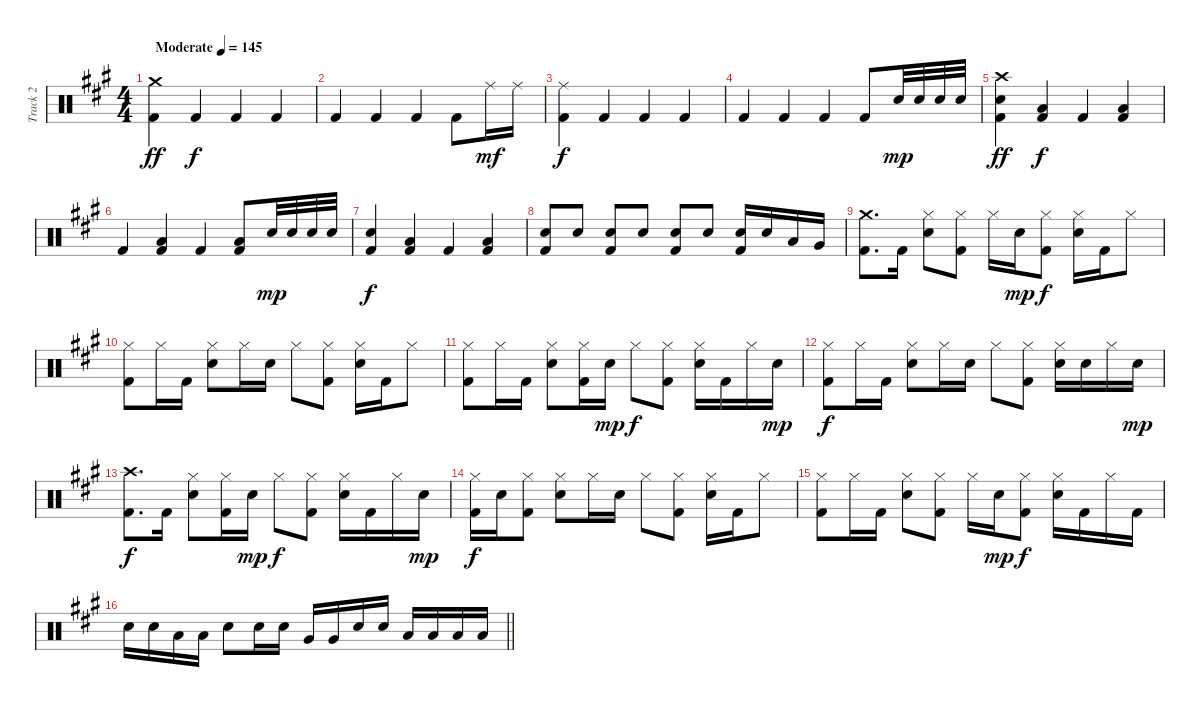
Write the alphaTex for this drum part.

\track ("Track 2" "Track 2") {instrument percussion}
\staff {score}
\articulation defaults
\ts (4 4)
\tempo (145 "Moderate")
\clef neutral
\ks a
("Crash medium (hit)" "Kick (hit) 2").4{dy ff} "Kick (hit) 2".4{dy f} "Kick (hit) 2".4 "Kick (hit) 2".4 |
"Kick (hit) 2".4 "Kick (hit) 2".4 "Kick (hit) 2".4 "Kick (hit) 2".8 "Ride (middle)".16{dy mf} "Ride (middle)".16 |
("Ride (middle)" "Kick (hit) 2").4{dy f} "Kick (hit) 2".4 "Kick (hit) 2".4 "Kick (hit) 2".4 |
"Kick (hit) 2".4 "Kick (hit) 2".4 "Kick (hit) 2".4 "Kick (hit) 2".8 "Snare (hit) 2".32{dy mp} "Snare (hit) 2".32 "Snare (hit) 2".32 "Snare (hit) 2".32 |
("Crash high (hit)" "Snare (hit) 2" "Kick (hit) 2").4{dy ff} ("Low Floor Tom (hit)" "Kick (hit) 2").4{dy f} "Kick (hit) 2".4 ("Low Floor Tom (hit)" "Kick (hit) 2").4 |
"Kick (hit) 2".4 ("Low Floor Tom (hit)" "Kick (hit) 2").4 "Kick (hit) 2".4 ("Low Floor Tom (hit)" "Kick (hit) 2").8 "Snare (hit) 2".32{dy mp} "Snare (hit) 2".32 "Snare (hit) 2".32 "Snare (hit) 2".32 |
("Snare (hit) 2" "Kick (hit) 2").4{dy f} ("Low Floor Tom (hit)" "Kick (hit) 2").4 "Kick (hit) 2".4 ("Low Floor Tom (hit)" "Kick (hit) 2").4 |
("Snare (hit) 2" "Kick (hit) 2").8 "Snare (hit) 2".8 ("Snare (hit) 2" "Kick (hit) 2").8 "Snare (hit) 2".8 ("Snare (hit) 2" "Kick (hit) 2").8 "Snare (hit) 2".8 ("Snare (hit) 2" "Kick (hit) 2").16 "Snare (hit) 2".16 "Low Tom (hit)".16 "Very Low Tom (hit)".16 |
("Crash medium (hit)" "Kick (hit) 2").8{d} "Kick (hit) 2".16 ("Hi-Hat (closed)" "Snare (hit) 2").8 ("Hi-Hat (closed)" "Kick (hit) 2").8 "Hi-Hat (closed)".16 "Snare (hit) 2".16{dy mp} ("Hi-Hat (closed)" "Kick (hit) 2").8{dy f} ("Hi-Hat (closed)" "Snare (hit) 2").16 "Kick (hit) 2".16 "Hi-Hat (closed)".8 |
("Hi-Hat (closed)" "Kick (hit) 2").8 "Hi-Hat (closed)".16 "Kick (hit) 2".16 ("Hi-Hat (closed)" "Snare (hit) 2").8 "Hi-Hat (closed)".16 "Snare (hit) 2".16 "Hi-Hat (closed)".8 ("Hi-Hat (closed)" "Kick (hit) 2").8 ("Hi-Hat (closed)" "Snare (hit) 2").16 "Kick (hit) 2".16 "Hi-Hat (closed)".8 |
("Hi-Hat (closed)" "Kick (hit) 2").8 "Hi-Hat (closed)".16 "Kick (hit) 2".16 ("Hi-Hat (closed)" "Snare (hit) 2").8 ("Hi-Hat (closed)" "Kick (hit) 2").16 "Snare (hit) 2".16{dy mp} "Hi-Hat (closed)".8{dy f} ("Hi-Hat (closed)" "Kick (hit) 2").8 ("Hi-Hat (closed)" "Snare (hit) 2").16 "Kick (hit) 2".16 "Hi-Hat (closed)".16 "Snare (hit) 2".16{dy mp} |
("Hi-Hat (closed)" "Kick (hit) 2").8{dy f} "Hi-Hat (closed)".16 "Kick (hit) 2".16 ("Hi-Hat (closed)" "Snare (hit) 2").8 "Hi-Hat (closed)".16 "Snare (hit) 2".16 "Hi-Hat (closed)".8 ("Hi-Hat (closed)" "Kick (hit) 2").8 ("Hi-Hat (closed)" "Snare (hit) 2").16 "Snare (hit) 2".16 "Hi-Hat (closed)".16 "Snare (hit) 2".16{dy mp} |
("Crash high (hit)" "Kick (hit) 2").8{d dy f} "Kick (hit) 2".16 ("Hi-Hat (closed)" "Snare (hit) 2").8 ("Hi-Hat (closed)" "Kick (hit) 2").16 "Snare (hit) 2".16{dy mp} "Hi-Hat (closed)".8{dy f} ("Hi-Hat (closed)" "Kick (hit) 2").8 ("Hi-Hat (closed)" "Snare (hit) 2").16 "Kick (hit) 2".16 "Hi-Hat (closed)".16 "Snare (hit) 2".16{dy mp} |
("Hi-Hat (closed)" "Kick (hit) 2").16{dy f} "Snare (hit) 2".16 ("Hi-Hat (closed)" "Kick (hit) 2").8 ("Hi-Hat (closed)" "Snare (hit) 2").8 "Hi-Hat (closed)".16 "Snare (hit) 2".16 "Hi-Hat (closed)".8 ("Hi-Hat (closed)" "Kick (hit) 2").8 ("Hi-Hat (closed)" "Snare (hit) 2").16 "Kick (hit) 2".16 "Hi-Hat (closed)".8 |
("Hi-Hat (closed)" "Kick (hit) 2").8 "Hi-Hat (closed)".16 "Kick (hit) 2".16 ("Hi-Hat (closed)" "Snare (hit) 2").8 ("Hi-Hat (closed)" "Kick (hit) 2").8 "Hi-Hat (closed)".16 "Snare (hit) 2".16{dy mp} ("Hi-Hat (closed)" "Kick (hit) 2").8{dy f} ("Hi-Hat (closed)" "Snare (hit) 2").16 "Kick (hit) 2".16 "Hi-Hat (closed)".16 "Kick (hit) 2".16 |
\barLineRight lightlight "Snare (hit) 2".16 "Snare (hit) 2".16 "Low Tom (hit)".16 "Low Tom (hit)".16 "Snare (hit) 2".8 "Snare (hit) 2".16 "Snare (hit) 2".16 "Very Low Tom (hit)".16 "Very Low Tom (hit)".16 "Snare (hit) 2".16 "Snare (hit) 2".16 "Low Floor Tom (hit)".16 "Low Floor Tom (hit)".16 "Low Floor Tom (hit)".16 "Low Floor Tom (hit)".16
